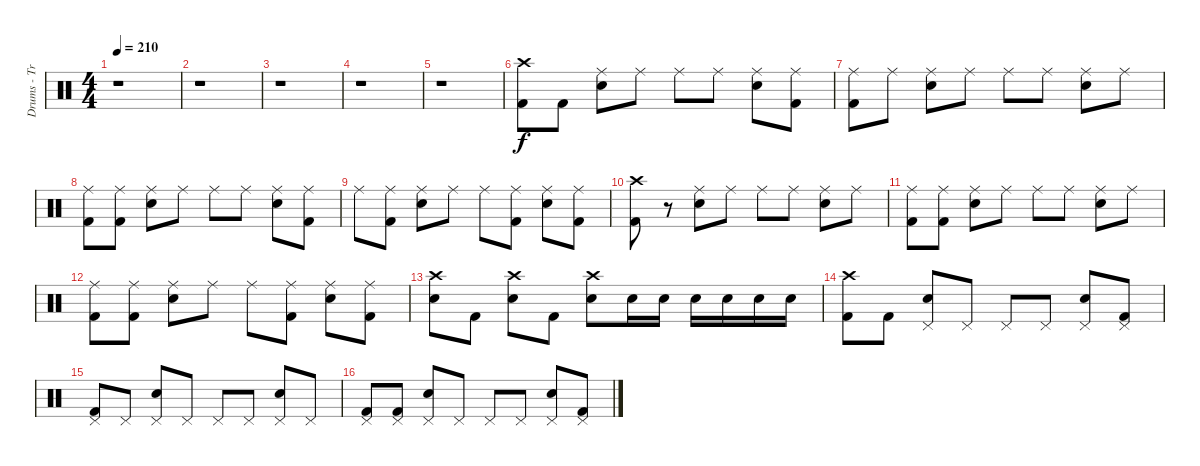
\track ("Drums - Travis Barker" "Drums - Tr") {instrument percussion}
\staff {score}
\articulation defaults
\ts (4 4)
\tempo 210
\clef neutral
\ks c
r.1{dy f} |
r.1 |
r.1 |
r.1 |
r.1 |
("Crash high (hit)" "Kick (hit) 2").8 "Kick (hit) 2".8 ("Ride (middle)" "Electric Snare (hit)").8 "Ride (middle)".8 "Ride (middle)".8 "Ride (middle)".8 ("Ride (middle)" "Electric Snare (hit)").8 ("Ride (middle)" "Kick (hit) 2").8 |
("Ride (middle)" "Kick (hit) 2").8 "Ride (middle)".8 ("Ride (middle)" "Electric Snare (hit)").8 "Ride (middle)".8 "Ride (middle)".8 "Ride (middle)".8 ("Ride (middle)" "Electric Snare (hit)").8 "Ride (middle)".8 |
("Ride (middle)" "Kick (hit) 2").8 ("Ride (middle)" "Kick (hit) 2").8 ("Ride (middle)" "Electric Snare (hit)").8 "Ride (middle)".8 "Ride (middle)".8 "Ride (middle)".8 ("Ride (middle)" "Electric Snare (hit)").8 ("Ride (middle)" "Kick (hit) 2").8 |
"Ride (middle)".8 ("Ride (middle)" "Kick (hit) 2").8 ("Ride (middle)" "Electric Snare (hit)").8 "Ride (middle)".8 "Ride (middle)".8 ("Ride (middle)" "Kick (hit) 2").8 ("Ride (middle)" "Electric Snare (hit)").8 ("Ride (middle)" "Kick (hit) 2").8 |
("Crash high (hit)" "Kick (hit) 2").8 r.8 ("Ride (middle)" "Electric Snare (hit)").8 "Ride (middle)".8 "Ride (middle)".8 "Ride (middle)".8 ("Ride (middle)" "Electric Snare (hit)").8 "Ride (middle)".8 |
("Ride (middle)" "Kick (hit) 2").8 ("Ride (middle)" "Kick (hit) 2").8 ("Ride (middle)" "Electric Snare (hit)").8 "Ride (middle)".8 "Ride (middle)".8 "Ride (middle)".8 ("Ride (middle)" "Electric Snare (hit)").8 "Ride (middle)".8 |
("Ride (middle)" "Kick (hit) 2").8 ("Ride (middle)" "Kick (hit) 2").8 ("Ride (middle)" "Electric Snare (hit)").8 "Ride (middle)".8 "Ride (middle)".8 ("Ride (middle)" "Kick (hit) 2").8 ("Ride (middle)" "Electric Snare (hit)").8 ("Ride (middle)" "Kick (hit) 2").8 |
("Crash high (hit)" "Electric Snare (hit)").8 "Kick (hit) 2".8 ("Crash high (hit)" "Electric Snare (hit)").8 "Kick (hit) 2".8 ("Crash high (hit)" "Electric Snare (hit)").8 "Electric Snare (hit)".16 "Electric Snare (hit)".16 "Electric Snare (hit)".16 "Electric Snare (hit)".16 "Electric Snare (hit)".16 "Electric Snare (hit)".16 |
("Crash high (hit)" "Kick (hit) 2").8 "Kick (hit) 2".8 ("Pedal Hi-Hat (hit)" "Electric Snare (hit)").8 "Pedal Hi-Hat (hit)".8 "Pedal Hi-Hat (hit)".8 "Pedal Hi-Hat (hit)".8 ("Pedal Hi-Hat (hit)" "Electric Snare (hit)").8 ("Pedal Hi-Hat (hit)" "Kick (hit) 2").8 |
("Pedal Hi-Hat (hit)" "Kick (hit) 2").8 "Pedal Hi-Hat (hit)".8 ("Pedal Hi-Hat (hit)" "Electric Snare (hit)").8 "Pedal Hi-Hat (hit)".8 "Pedal Hi-Hat (hit)".8 "Pedal Hi-Hat (hit)".8 ("Pedal Hi-Hat (hit)" "Electric Snare (hit)").8 "Pedal Hi-Hat (hit)".8 |
("Pedal Hi-Hat (hit)" "Kick (hit) 2").8 ("Pedal Hi-Hat (hit)" "Kick (hit) 2").8 ("Pedal Hi-Hat (hit)" "Electric Snare (hit)").8 "Pedal Hi-Hat (hit)".8 "Pedal Hi-Hat (hit)".8 "Pedal Hi-Hat (hit)".8 ("Pedal Hi-Hat (hit)" "Electric Snare (hit)").8 ("Pedal Hi-Hat (hit)" "Kick (hit) 2").8
